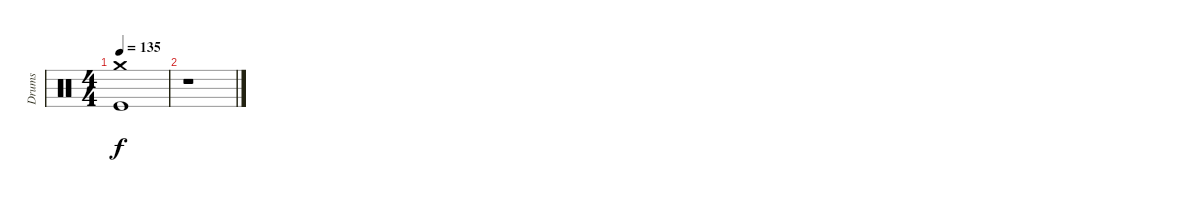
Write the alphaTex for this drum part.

\track ("Drums" "Drums") {instrument percussion}
\staff {score}
\articulation defaults
\ts (4 4)
\tempo 135
\clef neutral
\ks c
("Crash medium (hit)" "Kick (hit)").1{dy f} |
r.1
